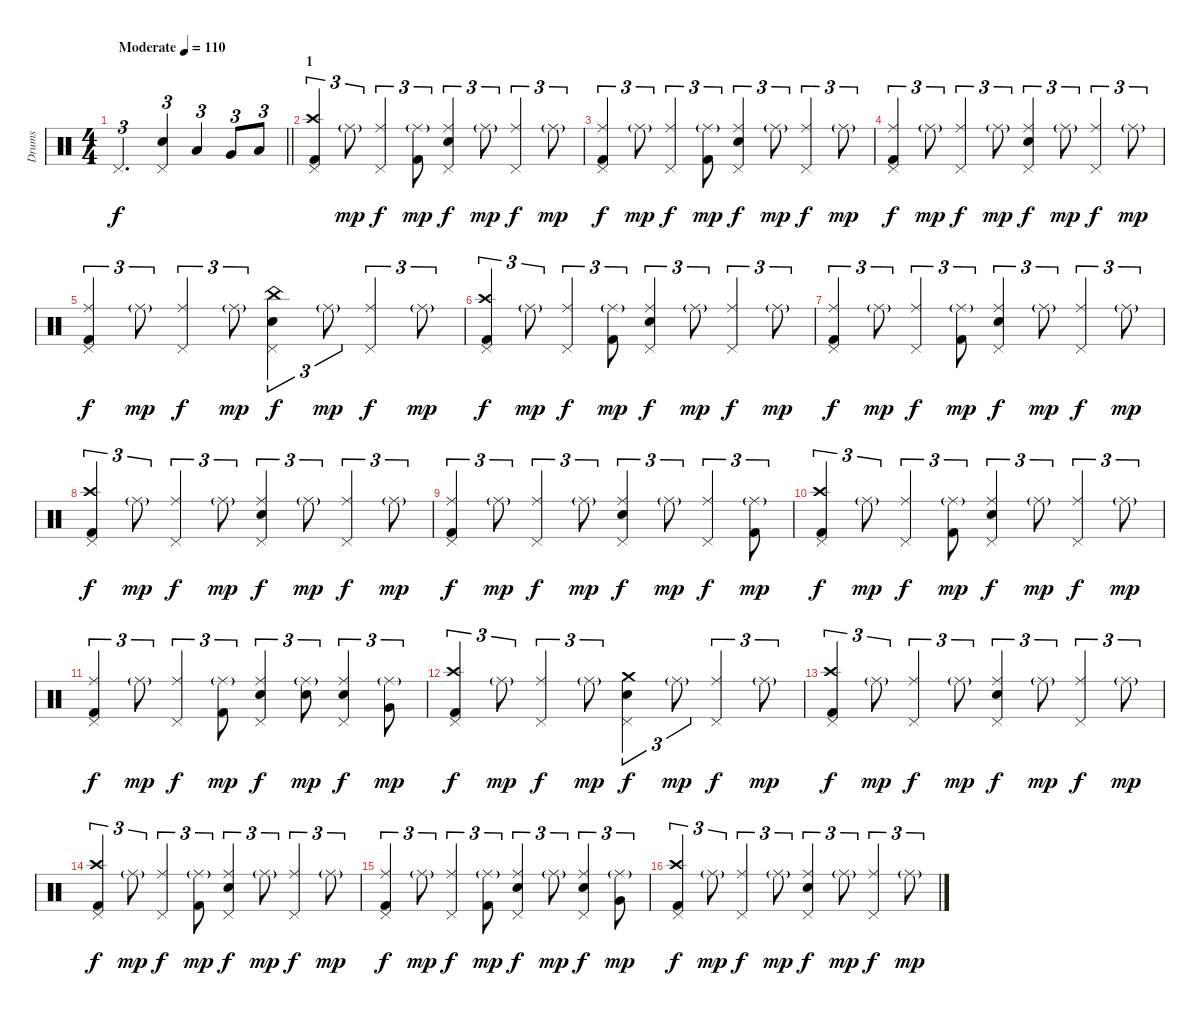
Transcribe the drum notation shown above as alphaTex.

\track ("Drums" "Drums") {instrument percussion}
\staff {score}
\articulation defaults
\ts (4 4)
\tempo (110 "Moderate")
\clef neutral
\barLineRight lightlight
\ks c "Pedal Hi-Hat (hit)".2{d tu (3 2) dy f}
("Pedal Hi-Hat (hit)" "Electric Snare (hit)").4{tu (3 2)} "Low Tom (hit)".4{tu (3 2)} "Very Low Tom (hit)".8{tu (3 2)} "Low Floor Tom (hit)".8{tu (3 2)} |
\section ("" "1")
("Crash high (hit)" "Pedal Hi-Hat (hit)" "Kick (hit) 2").4{tu (3 2)} "Ride (middle)"{g}.8{tu (3 2) dy mp} ("Ride (middle)" "Pedal Hi-Hat (hit)").4{tu (3 2) dy f} ("Ride (middle)"{g} "Kick (hit) 2").8{tu (3 2) dy mp} ("Ride (middle)" "Pedal Hi-Hat (hit)" "Electric Snare (hit)").4{tu (3 2) dy f} "Ride (middle)"{g}.8{tu (3 2) dy mp} ("Ride (middle)" "Pedal Hi-Hat (hit)").4{tu (3 2) dy f} "Ride (middle)"{g}.8{tu (3 2) dy mp} |
("Ride (middle)" "Pedal Hi-Hat (hit)" "Kick (hit) 2").4{tu (3 2) dy f} "Ride (middle)"{g}.8{tu (3 2) dy mp} ("Ride (middle)" "Pedal Hi-Hat (hit)").4{tu (3 2) dy f} ("Ride (middle)"{g} "Kick (hit) 2").8{tu (3 2) dy mp} ("Ride (middle)" "Pedal Hi-Hat (hit)" "Electric Snare (hit)").4{tu (3 2) dy f} "Ride (middle)"{g}.8{tu (3 2) dy mp} ("Ride (middle)" "Pedal Hi-Hat (hit)").4{tu (3 2) dy f} "Ride (middle)"{g}.8{tu (3 2) dy mp} |
("Ride (middle)" "Pedal Hi-Hat (hit)" "Kick (hit) 2").4{tu (3 2) dy f} "Ride (middle)"{g}.8{tu (3 2) dy mp} ("Ride (middle)" "Pedal Hi-Hat (hit)").4{tu (3 2) dy f} "Ride (middle)"{g}.8{tu (3 2) dy mp} ("Ride (middle)" "Pedal Hi-Hat (hit)" "Electric Snare (hit)").4{tu (3 2) dy f} "Ride (middle)"{g}.8{tu (3 2) dy mp} ("Ride (middle)" "Pedal Hi-Hat (hit)").4{tu (3 2) dy f} "Ride (middle)"{g}.8{tu (3 2) dy mp} |
("Ride (middle)" "Pedal Hi-Hat (hit)" "Kick (hit) 2").4{tu (3 2) dy f} "Ride (middle)"{g}.8{tu (3 2) dy mp} ("Ride (middle)" "Pedal Hi-Hat (hit)").4{tu (3 2) dy f} "Ride (middle)"{g}.8{tu (3 2) dy mp} ("China (hit)" "Pedal Hi-Hat (hit)" "Electric Snare (hit)").4{tu (3 2) dy f} "Ride (middle)"{g}.8{tu (3 2) dy mp} ("Ride (middle)" "Pedal Hi-Hat (hit)").4{tu (3 2) dy f} "Ride (middle)"{g}.8{tu (3 2) dy mp} |
("Crash high (hit)" "Pedal Hi-Hat (hit)" "Kick (hit) 2").4{tu (3 2) dy f} "Ride (middle)"{g}.8{tu (3 2) dy mp} ("Ride (middle)" "Pedal Hi-Hat (hit)").4{tu (3 2) dy f} ("Ride (middle)"{g} "Kick (hit) 2").8{tu (3 2) dy mp} ("Ride (middle)" "Pedal Hi-Hat (hit)" "Electric Snare (hit)").4{tu (3 2) dy f} "Ride (middle)"{g}.8{tu (3 2) dy mp} ("Ride (middle)" "Pedal Hi-Hat (hit)").4{tu (3 2) dy f} "Ride (middle)"{g}.8{tu (3 2) dy mp} |
("Ride (middle)" "Pedal Hi-Hat (hit)" "Kick (hit) 2").4{tu (3 2) dy f} "Ride (middle)"{g}.8{tu (3 2) dy mp} ("Ride (middle)" "Pedal Hi-Hat (hit)").4{tu (3 2) dy f} ("Ride (middle)"{g} "Kick (hit) 2").8{tu (3 2) dy mp} ("Ride (middle)" "Pedal Hi-Hat (hit)" "Electric Snare (hit)").4{tu (3 2) dy f} "Ride (middle)"{g}.8{tu (3 2) dy mp} ("Ride (middle)" "Pedal Hi-Hat (hit)").4{tu (3 2) dy f} "Ride (middle)"{g}.8{tu (3 2) dy mp} |
("Crash high (hit)" "Pedal Hi-Hat (hit)" "Kick (hit) 2").4{tu (3 2) dy f} "Ride (middle)"{g}.8{tu (3 2) dy mp} ("Ride (middle)" "Pedal Hi-Hat (hit)").4{tu (3 2) dy f} "Ride (middle)"{g}.8{tu (3 2) dy mp} ("Ride (middle)" "Pedal Hi-Hat (hit)" "Electric Snare (hit)").4{tu (3 2) dy f} "Ride (middle)"{g}.8{tu (3 2) dy mp} ("Ride (middle)" "Pedal Hi-Hat (hit)").4{tu (3 2) dy f} "Ride (middle)"{g}.8{tu (3 2) dy mp} |
("Ride (middle)" "Pedal Hi-Hat (hit)" "Kick (hit) 2").4{tu (3 2) dy f} "Ride (middle)"{g}.8{tu (3 2) dy mp} ("Ride (middle)" "Pedal Hi-Hat (hit)").4{tu (3 2) dy f} "Ride (middle)"{g}.8{tu (3 2) dy mp} ("Ride (middle)" "Pedal Hi-Hat (hit)" "Electric Snare (hit)").4{tu (3 2) dy f} "Ride (middle)"{g}.8{tu (3 2) dy mp} ("Ride (middle)" "Pedal Hi-Hat (hit)").4{tu (3 2) dy f} ("Ride (middle)"{g} "Kick (hit) 2").8{tu (3 2) dy mp} |
("Crash high (hit)" "Pedal Hi-Hat (hit)" "Kick (hit) 2").4{tu (3 2) dy f} "Ride (middle)"{g}.8{tu (3 2) dy mp} ("Ride (middle)" "Pedal Hi-Hat (hit)").4{tu (3 2) dy f} ("Ride (middle)"{g} "Kick (hit) 2").8{tu (3 2) dy mp} ("Ride (middle)" "Pedal Hi-Hat (hit)" "Electric Snare (hit)").4{tu (3 2) dy f} "Ride (middle)"{g}.8{tu (3 2) dy mp} ("Ride (middle)" "Pedal Hi-Hat (hit)").4{tu (3 2) dy f} "Ride (middle)"{g}.8{tu (3 2) dy mp} |
("Ride (middle)" "Pedal Hi-Hat (hit)" "Kick (hit) 2").4{tu (3 2) dy f} "Ride (middle)"{g}.8{tu (3 2) dy mp} ("Ride (middle)" "Pedal Hi-Hat (hit)").4{tu (3 2) dy f} ("Ride (middle)"{g} "Kick (hit) 2").8{tu (3 2) dy mp} ("Ride (middle)" "Pedal Hi-Hat (hit)" "Electric Snare (hit)").4{tu (3 2) dy f} ("Ride (middle)"{g} "Electric Snare (hit)").8{tu (3 2) dy mp} ("Ride (middle)" "Pedal Hi-Hat (hit)" "Electric Snare (hit)").4{tu (3 2) dy f} ("Ride (middle)"{g} "Very Low Tom (hit)").8{tu (3 2) dy mp} |
("Crash high (hit)" "Pedal Hi-Hat (hit)" "Kick (hit) 2").4{tu (3 2) dy f} "Ride (middle)"{g}.8{tu (3 2) dy mp} ("Ride (middle)" "Pedal Hi-Hat (hit)").4{tu (3 2) dy f} "Ride (middle)"{g}.8{tu (3 2) dy mp} ("Crash medium (hit)" "Pedal Hi-Hat (hit)" "Electric Snare (hit)").4{tu (3 2) dy f} "Ride (middle)"{g}.8{tu (3 2) dy mp} ("Ride (middle)" "Pedal Hi-Hat (hit)").4{tu (3 2) dy f} "Ride (middle)"{g}.8{tu (3 2) dy mp} |
("Crash high (hit)" "Pedal Hi-Hat (hit)" "Kick (hit) 2").4{tu (3 2) dy f} "Ride (middle)"{g}.8{tu (3 2) dy mp} ("Ride (middle)" "Pedal Hi-Hat (hit)").4{tu (3 2) dy f} "Ride (middle)"{g}.8{tu (3 2) dy mp} ("Ride (middle)" "Pedal Hi-Hat (hit)" "Electric Snare (hit)").4{tu (3 2) dy f} "Ride (middle)"{g}.8{tu (3 2) dy mp} ("Ride (middle)" "Pedal Hi-Hat (hit)").4{tu (3 2) dy f} "Ride (middle)"{g}.8{tu (3 2) dy mp} |
("Crash high (hit)" "Pedal Hi-Hat (hit)" "Kick (hit) 2").4{tu (3 2) dy f} "Ride (middle)"{g}.8{tu (3 2) dy mp} ("Ride (middle)" "Pedal Hi-Hat (hit)").4{tu (3 2) dy f} ("Ride (middle)"{g} "Kick (hit) 2").8{tu (3 2) dy mp} ("Ride (middle)" "Pedal Hi-Hat (hit)" "Electric Snare (hit)").4{tu (3 2) dy f} "Ride (middle)"{g}.8{tu (3 2) dy mp} ("Ride (middle)" "Pedal Hi-Hat (hit)").4{tu (3 2) dy f} "Ride (middle)"{g}.8{tu (3 2) dy mp} |
("Ride (middle)" "Pedal Hi-Hat (hit)" "Kick (hit) 2").4{tu (3 2) dy f} "Ride (middle)"{g}.8{tu (3 2) dy mp} ("Ride (middle)" "Pedal Hi-Hat (hit)").4{tu (3 2) dy f} ("Ride (middle)"{g} "Kick (hit) 2").8{tu (3 2) dy mp} ("Ride (middle)" "Pedal Hi-Hat (hit)" "Electric Snare (hit)").4{tu (3 2) dy f} "Ride (middle)"{g}.8{tu (3 2) dy mp} ("Ride (middle)" "Pedal Hi-Hat (hit)" "Electric Snare (hit)").4{tu (3 2) dy f} ("Ride (middle)"{g} "Very Low Tom (hit)").8{tu (3 2) dy mp} |
("Crash high (hit)" "Pedal Hi-Hat (hit)" "Kick (hit) 2").4{tu (3 2) dy f} "Ride (middle)"{g}.8{tu (3 2) dy mp} ("Ride (middle)" "Pedal Hi-Hat (hit)").4{tu (3 2) dy f} "Ride (middle)"{g}.8{tu (3 2) dy mp} ("Ride (middle)" "Pedal Hi-Hat (hit)" "Electric Snare (hit)").4{tu (3 2) dy f} "Ride (middle)"{g}.8{tu (3 2) dy mp} ("Ride (middle)" "Pedal Hi-Hat (hit)").4{tu (3 2) dy f} "Ride (middle)"{g}.8{tu (3 2) dy mp}
